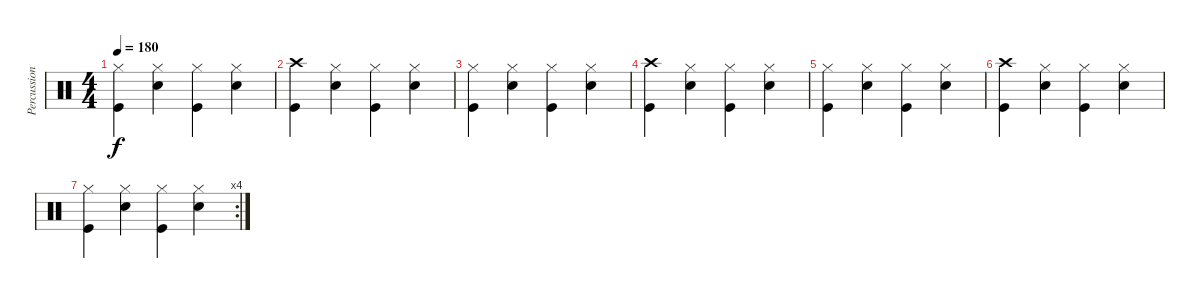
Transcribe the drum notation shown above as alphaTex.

\track ("Percussion" "Percussion") {instrument percussion}
\staff {score}
\articulation defaults
\ts (4 4)
\tempo 180
\clef neutral
\ks c
("Hi-Hat (closed)" "Kick (hit)").4{dy f} ("Hi-Hat (closed)" "Snare (hit) 2").4 ("Hi-Hat (closed)" "Kick (hit)").4 ("Hi-Hat (closed)" "Snare (hit) 2").4 |
("Crash high (hit)" "Kick (hit)").4 ("Hi-Hat (closed)" "Snare (hit) 2").4 ("Hi-Hat (closed)" "Kick (hit)").4 ("Hi-Hat (closed)" "Snare (hit) 2").4 |
("Hi-Hat (closed)" "Kick (hit)").4 ("Hi-Hat (closed)" "Snare (hit) 2").4 ("Hi-Hat (closed)" "Kick (hit)").4 ("Hi-Hat (closed)" "Snare (hit) 2").4 |
("Crash high (hit)" "Kick (hit)").4 ("Hi-Hat (closed)" "Snare (hit) 2").4 ("Hi-Hat (closed)" "Kick (hit)").4 ("Hi-Hat (closed)" "Snare (hit) 2").4 |
("Hi-Hat (closed)" "Kick (hit)").4 ("Hi-Hat (closed)" "Snare (hit) 2").4 ("Hi-Hat (closed)" "Kick (hit)").4 ("Hi-Hat (closed)" "Snare (hit) 2").4 |
("Crash high (hit)" "Kick (hit)").4 ("Hi-Hat (closed)" "Snare (hit) 2").4 ("Hi-Hat (closed)" "Kick (hit)").4 ("Hi-Hat (closed)" "Snare (hit) 2").4 |
\rc 4
("Hi-Hat (closed)" "Kick (hit)").4 ("Hi-Hat (closed)" "Snare (hit) 2").4 ("Hi-Hat (closed)" "Kick (hit)").4 ("Hi-Hat (closed)" "Snare (hit) 2").4
